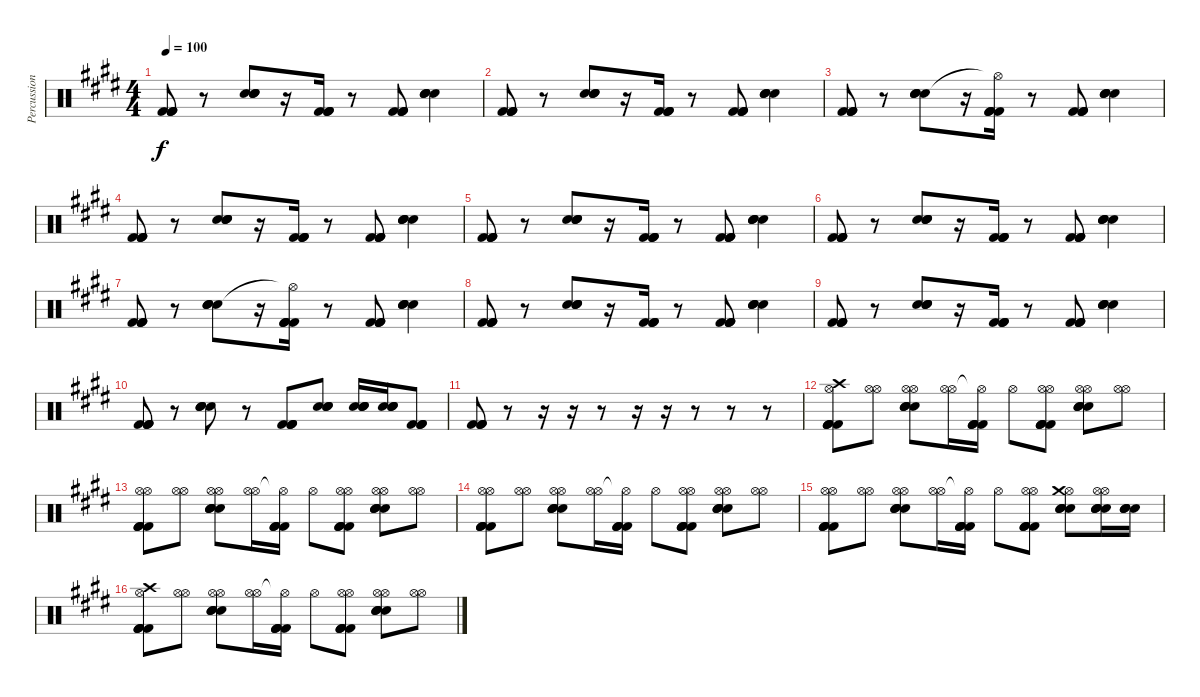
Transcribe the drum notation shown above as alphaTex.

\track ("Percussion" "Percussion") {instrument percussion}
\staff {score}
\articulation defaults
\ts (4 4)
\tempo 100
\clef neutral
\ks e
("Kick (hit) 2" "Kick (hit) 2" "Kick (hit) 2" "Kick (hit) 2").8{dy f} r.8 ("Electric Snare (hit)" "Electric Snare (hit)" "Electric Snare (hit)" "Electric Snare (hit)").8 r.16 ("Kick (hit) 2" "Kick (hit) 2" "Kick (hit) 2" "Kick (hit) 2").16 r.8 ("Kick (hit) 2" "Kick (hit) 2" "Kick (hit) 2" "Kick (hit) 2").8 ("Electric Snare (hit)" "Electric Snare (hit)" "Electric Snare (hit)" "Electric Snare (hit)").4 |
("Kick (hit) 2" "Kick (hit) 2" "Kick (hit) 2" "Kick (hit) 2").8 r.8 ("Electric Snare (hit)" "Electric Snare (hit)" "Electric Snare (hit)" "Electric Snare (hit)").8 r.16 ("Kick (hit) 2" "Kick (hit) 2" "Kick (hit) 2" "Kick (hit) 2").16 r.8 ("Kick (hit) 2" "Kick (hit) 2" "Kick (hit) 2" "Kick (hit) 2").8 ("Electric Snare (hit)" "Electric Snare (hit)" "Electric Snare (hit)" "Electric Snare (hit)").4 |
("Kick (hit) 2" "Kick (hit) 2" "Kick (hit) 2" "Kick (hit) 2").8 r.8 ("Electric Snare (hit)" "Electric Snare (hit)" "Electric Snare (hit)" "Electric Snare (hit)").8 r.16 ("Hi-Hat (open)"{t} "Kick (hit) 2" "Kick (hit) 2" "Kick (hit) 2" "Kick (hit) 2").16 r.8 ("Kick (hit) 2" "Kick (hit) 2" "Kick (hit) 2" "Kick (hit) 2").8 ("Electric Snare (hit)" "Electric Snare (hit)" "Electric Snare (hit)" "Electric Snare (hit)").4 |
("Kick (hit) 2" "Kick (hit) 2" "Kick (hit) 2" "Kick (hit) 2").8 r.8 ("Electric Snare (hit)" "Electric Snare (hit)" "Electric Snare (hit)" "Electric Snare (hit)").8 r.16 ("Kick (hit) 2" "Kick (hit) 2" "Kick (hit) 2" "Kick (hit) 2").16 r.8 ("Kick (hit) 2" "Kick (hit) 2" "Kick (hit) 2" "Kick (hit) 2").8 ("Electric Snare (hit)" "Electric Snare (hit)" "Electric Snare (hit)" "Electric Snare (hit)").4 |
("Kick (hit) 2" "Kick (hit) 2" "Kick (hit) 2" "Kick (hit) 2").8 r.8 ("Electric Snare (hit)" "Electric Snare (hit)" "Electric Snare (hit)" "Electric Snare (hit)").8 r.16 ("Kick (hit) 2" "Kick (hit) 2" "Kick (hit) 2" "Kick (hit) 2").16 r.8 ("Kick (hit) 2" "Kick (hit) 2" "Kick (hit) 2" "Kick (hit) 2").8 ("Electric Snare (hit)" "Electric Snare (hit)" "Electric Snare (hit)" "Electric Snare (hit)").4 |
("Kick (hit) 2" "Kick (hit) 2" "Kick (hit) 2" "Kick (hit) 2").8 r.8 ("Electric Snare (hit)" "Electric Snare (hit)" "Electric Snare (hit)" "Electric Snare (hit)").8 r.16 ("Kick (hit) 2" "Kick (hit) 2" "Kick (hit) 2" "Kick (hit) 2").16 r.8 ("Kick (hit) 2" "Kick (hit) 2" "Kick (hit) 2" "Kick (hit) 2").8 ("Electric Snare (hit)" "Electric Snare (hit)" "Electric Snare (hit)" "Electric Snare (hit)").4 |
("Kick (hit) 2" "Kick (hit) 2" "Kick (hit) 2" "Kick (hit) 2").8 r.8 ("Electric Snare (hit)" "Electric Snare (hit)" "Electric Snare (hit)" "Electric Snare (hit)").8 r.16 ("Hi-Hat (open)"{t} "Kick (hit) 2" "Kick (hit) 2" "Kick (hit) 2" "Kick (hit) 2").16 r.8 ("Kick (hit) 2" "Kick (hit) 2" "Kick (hit) 2" "Kick (hit) 2").8 ("Electric Snare (hit)" "Electric Snare (hit)" "Electric Snare (hit)" "Electric Snare (hit)").4 |
("Kick (hit) 2" "Kick (hit) 2" "Kick (hit) 2" "Kick (hit) 2").8 r.8 ("Electric Snare (hit)" "Electric Snare (hit)" "Electric Snare (hit)" "Electric Snare (hit)").8 r.16 ("Kick (hit) 2" "Kick (hit) 2" "Kick (hit) 2" "Kick (hit) 2").16 r.8 ("Kick (hit) 2" "Kick (hit) 2" "Kick (hit) 2" "Kick (hit) 2").8 ("Electric Snare (hit)" "Electric Snare (hit)" "Electric Snare (hit)" "Electric Snare (hit)").4 |
("Kick (hit) 2" "Kick (hit) 2" "Kick (hit) 2" "Kick (hit) 2").8 r.8 ("Electric Snare (hit)" "Electric Snare (hit)" "Electric Snare (hit)" "Electric Snare (hit)").8 r.16 ("Kick (hit) 2" "Kick (hit) 2" "Kick (hit) 2" "Kick (hit) 2").16 r.8 ("Kick (hit) 2" "Kick (hit) 2" "Kick (hit) 2" "Kick (hit) 2").8 ("Electric Snare (hit)" "Electric Snare (hit)" "Electric Snare (hit)" "Electric Snare (hit)").4 |
("Kick (hit) 2" "Kick (hit) 2" "Kick (hit) 2" "Kick (hit) 2").8 r.8 ("Electric Snare (hit)" "Electric Snare (hit)" "Electric Snare (hit)" "Electric Snare (hit)").8 r.8 ("Kick (hit) 2" "Kick (hit) 2" "Kick (hit) 2" "Kick (hit) 2").8 ("Electric Snare (hit)" "Electric Snare (hit)" "Electric Snare (hit)" "Electric Snare (hit)").8 ("Electric Snare (hit)" "Electric Snare (hit)" "Electric Snare (hit)" "Electric Snare (hit)").16 ("Electric Snare (hit)" "Electric Snare (hit)" "Electric Snare (hit)" "Electric Snare (hit)").16 ("Kick (hit) 2" "Kick (hit) 2" "Kick (hit) 2" "Kick (hit) 2").8 |
("Kick (hit) 2" "Kick (hit) 2" "Kick (hit) 2" "Kick (hit) 2").8 r.8 r.16 r.16 r.8 r.16 r.16 r.8 r.8 r.8 |
("Hi-Hat (open)" "Kick (hit) 2" "Kick (hit) 2" "Kick (hit) 2" "Kick (hit) 2" "Crash high (hit)").8 ("Hi-Hat (open)" "Hi-Hat (open)").8 ("Hi-Hat (open)" "Electric Snare (hit)" "Electric Snare (hit)" "Electric Snare (hit)" "Electric Snare (hit)" "Hi-Hat (open)").8 ("Hi-Hat (open)" "Hi-Hat (open)").16 ("Hi-Hat (open)"{t} "Kick (hit) 2" "Kick (hit) 2" "Kick (hit) 2" "Kick (hit) 2").16 "Hi-Hat (open)".8 ("Hi-Hat (open)" "Kick (hit) 2" "Kick (hit) 2" "Kick (hit) 2" "Kick (hit) 2" "Hi-Hat (open)").8 ("Hi-Hat (open)" "Electric Snare (hit)" "Electric Snare (hit)" "Electric Snare (hit)" "Electric Snare (hit)" "Hi-Hat (open)").8 ("Hi-Hat (open)" "Hi-Hat (open)").8 |
("Hi-Hat (open)" "Kick (hit) 2" "Kick (hit) 2" "Kick (hit) 2" "Kick (hit) 2" "Hi-Hat (open)").8 ("Hi-Hat (open)" "Hi-Hat (open)").8 ("Hi-Hat (open)" "Electric Snare (hit)" "Electric Snare (hit)" "Electric Snare (hit)" "Electric Snare (hit)" "Hi-Hat (open)").8 ("Hi-Hat (open)" "Hi-Hat (open)").16 ("Hi-Hat (open)"{t} "Kick (hit) 2" "Kick (hit) 2" "Kick (hit) 2" "Kick (hit) 2").16 "Hi-Hat (open)".8 ("Hi-Hat (open)" "Kick (hit) 2" "Kick (hit) 2" "Kick (hit) 2" "Kick (hit) 2" "Hi-Hat (open)").8 ("Hi-Hat (open)" "Electric Snare (hit)" "Electric Snare (hit)" "Electric Snare (hit)" "Electric Snare (hit)" "Hi-Hat (open)").8 ("Hi-Hat (open)" "Hi-Hat (open)").8 |
("Hi-Hat (open)" "Kick (hit) 2" "Kick (hit) 2" "Kick (hit) 2" "Kick (hit) 2" "Hi-Hat (open)").8 ("Hi-Hat (open)" "Hi-Hat (open)").8 ("Hi-Hat (open)" "Electric Snare (hit)" "Electric Snare (hit)" "Electric Snare (hit)" "Electric Snare (hit)" "Hi-Hat (open)").8 ("Hi-Hat (open)" "Hi-Hat (open)").16 ("Hi-Hat (open)"{t} "Kick (hit) 2" "Kick (hit) 2" "Kick (hit) 2" "Kick (hit) 2").16 "Hi-Hat (open)".8 ("Hi-Hat (open)" "Kick (hit) 2" "Kick (hit) 2" "Kick (hit) 2" "Kick (hit) 2" "Hi-Hat (open)").8 ("Hi-Hat (open)" "Electric Snare (hit)" "Electric Snare (hit)" "Electric Snare (hit)" "Electric Snare (hit)" "Hi-Hat (open)").8 ("Hi-Hat (open)" "Hi-Hat (open)").8 |
("Hi-Hat (open)" "Kick (hit) 2" "Kick (hit) 2" "Kick (hit) 2" "Kick (hit) 2" "Hi-Hat (open)").8 ("Hi-Hat (open)" "Hi-Hat (open)").8 ("Hi-Hat (open)" "Electric Snare (hit)" "Electric Snare (hit)" "Electric Snare (hit)" "Electric Snare (hit)" "Hi-Hat (open)").8 ("Hi-Hat (open)" "Hi-Hat (open)").16 ("Hi-Hat (open)"{t} "Kick (hit) 2" "Kick (hit) 2" "Kick (hit) 2" "Kick (hit) 2").16 "Hi-Hat (open)".8 ("Hi-Hat (open)" "Kick (hit) 2" "Kick (hit) 2" "Kick (hit) 2" "Kick (hit) 2" "Hi-Hat (open)").8 ("Hi-Hat (open)" "Electric Snare (hit)" "Electric Snare (hit)" "Electric Snare (hit)" "Electric Snare (hit)" "Crash medium (hit)").8 ("Hi-Hat (open)" "Electric Snare (hit)" "Electric Snare (hit)" "Electric Snare (hit)" "Electric Snare (hit)" "Hi-Hat (open)").16 ("Electric Snare (hit)" "Electric Snare (hit)" "Electric Snare (hit)" "Electric Snare (hit)").16 |
("Hi-Hat (open)" "Kick (hit) 2" "Kick (hit) 2" "Kick (hit) 2" "Kick (hit) 2" "Crash high (hit)").8 ("Hi-Hat (open)" "Hi-Hat (open)").8 ("Hi-Hat (open)" "Electric Snare (hit)" "Electric Snare (hit)" "Electric Snare (hit)" "Electric Snare (hit)" "Hi-Hat (open)").8 ("Hi-Hat (open)" "Hi-Hat (open)").16 ("Hi-Hat (open)"{t} "Kick (hit) 2" "Kick (hit) 2" "Kick (hit) 2" "Kick (hit) 2").16 "Hi-Hat (open)".8 ("Hi-Hat (open)" "Kick (hit) 2" "Kick (hit) 2" "Kick (hit) 2" "Kick (hit) 2" "Hi-Hat (open)").8 ("Hi-Hat (open)" "Electric Snare (hit)" "Electric Snare (hit)" "Electric Snare (hit)" "Electric Snare (hit)" "Hi-Hat (open)").8 ("Hi-Hat (open)" "Hi-Hat (open)").8
